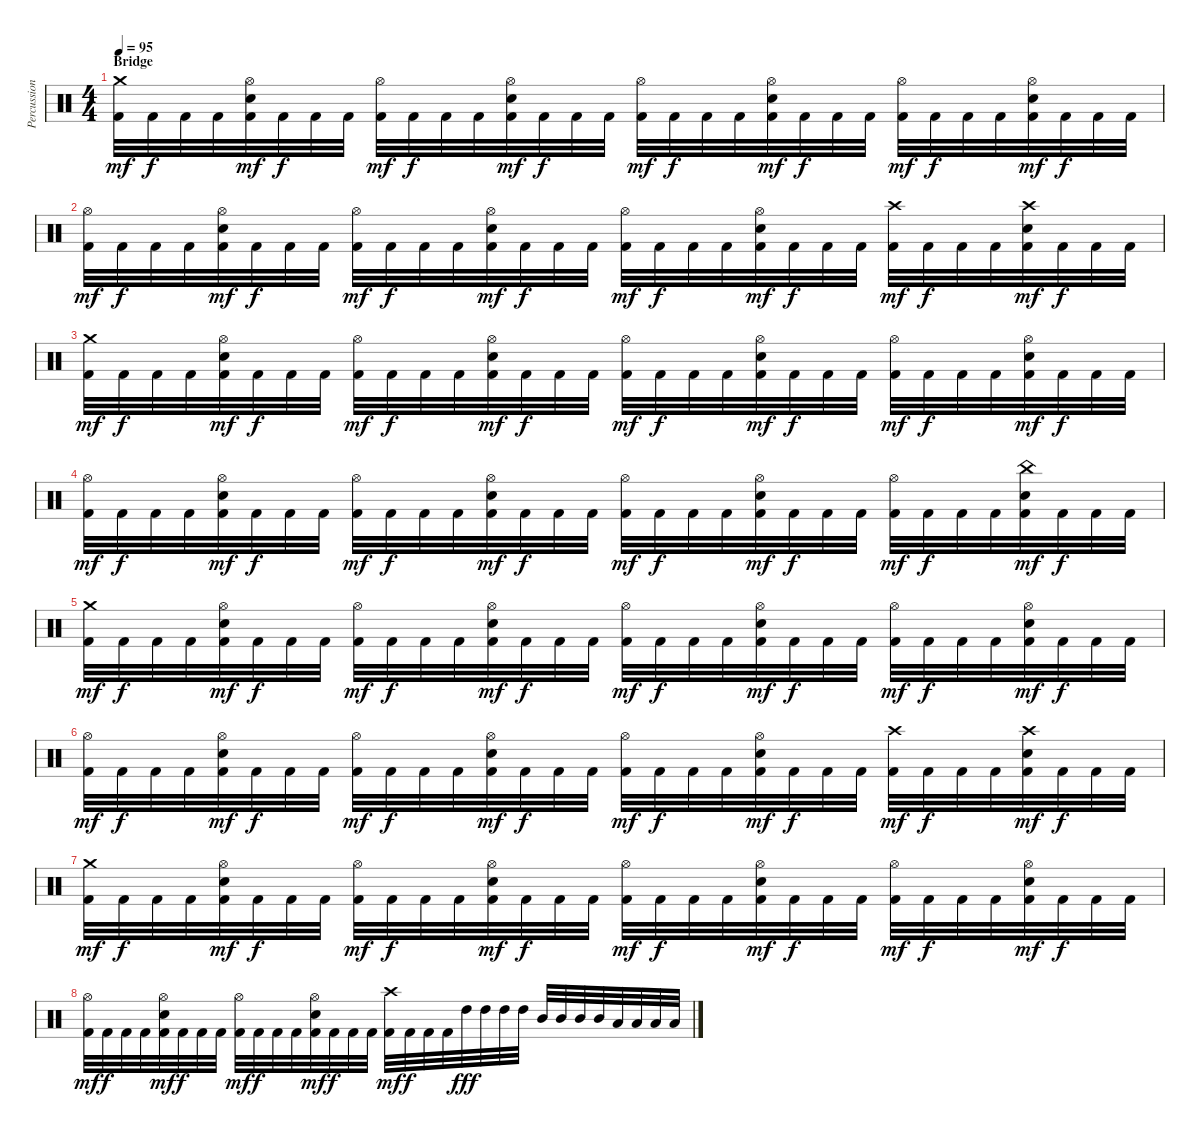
\track ("Percussion" "Percussion") {instrument percussion}
\staff {score}
\articulation defaults
\ts (4 4)
\section ("" "Bridge")
\tempo 95
\clef neutral
\ks c
("Crash medium (hit)" "Kick (hit) 2").32{dy mf} "Kick (hit) 2".32{dy f} "Kick (hit) 2".32 "Kick (hit) 2".32 ("Hi-Hat (open)" "Electric Snare (hit)" "Kick (hit) 2").32{dy mf} "Kick (hit) 2".32{dy f} "Kick (hit) 2".32 "Kick (hit) 2".32 ("Hi-Hat (open)" "Kick (hit) 2").32{dy mf} "Kick (hit) 2".32{dy f} "Kick (hit) 2".32 "Kick (hit) 2".32 ("Hi-Hat (open)" "Electric Snare (hit)" "Kick (hit) 2").32{dy mf} "Kick (hit) 2".32{dy f} "Kick (hit) 2".32 "Kick (hit) 2".32 ("Hi-Hat (open)" "Kick (hit) 2").32{dy mf} "Kick (hit) 2".32{dy f} "Kick (hit) 2".32 "Kick (hit) 2".32 ("Hi-Hat (open)" "Electric Snare (hit)" "Kick (hit) 2").32{dy mf} "Kick (hit) 2".32{dy f} "Kick (hit) 2".32 "Kick (hit) 2".32 ("Hi-Hat (open)" "Kick (hit) 2").32{dy mf} "Kick (hit) 2".32{dy f} "Kick (hit) 2".32 "Kick (hit) 2".32 ("Hi-Hat (open)" "Electric Snare (hit)" "Kick (hit) 2").32{dy mf} "Kick (hit) 2".32{dy f} "Kick (hit) 2".32 "Kick (hit) 2".32 |
("Hi-Hat (open)" "Kick (hit) 2").32{dy mf} "Kick (hit) 2".32{dy f} "Kick (hit) 2".32 "Kick (hit) 2".32 ("Hi-Hat (open)" "Electric Snare (hit)" "Kick (hit) 2").32{dy mf} "Kick (hit) 2".32{dy f} "Kick (hit) 2".32 "Kick (hit) 2".32 ("Hi-Hat (open)" "Kick (hit) 2").32{dy mf} "Kick (hit) 2".32{dy f} "Kick (hit) 2".32 "Kick (hit) 2".32 ("Hi-Hat (open)" "Electric Snare (hit)" "Kick (hit) 2").32{dy mf} "Kick (hit) 2".32{dy f} "Kick (hit) 2".32 "Kick (hit) 2".32 ("Hi-Hat (open)" "Kick (hit) 2").32{dy mf} "Kick (hit) 2".32{dy f} "Kick (hit) 2".32 "Kick (hit) 2".32 ("Hi-Hat (open)" "Electric Snare (hit)" "Kick (hit) 2").32{dy mf} "Kick (hit) 2".32{dy f} "Kick (hit) 2".32 "Kick (hit) 2".32 ("Crash high (hit)" "Kick (hit) 2").32{dy mf} "Kick (hit) 2".32{dy f} "Kick (hit) 2".32 "Kick (hit) 2".32 ("Crash high (hit)" "Electric Snare (hit)" "Kick (hit) 2").32{dy mf} "Kick (hit) 2".32{dy f} "Kick (hit) 2".32 "Kick (hit) 2".32 |
("Crash medium (hit)" "Kick (hit) 2").32{dy mf} "Kick (hit) 2".32{dy f} "Kick (hit) 2".32 "Kick (hit) 2".32 ("Hi-Hat (open)" "Electric Snare (hit)" "Kick (hit) 2").32{dy mf} "Kick (hit) 2".32{dy f} "Kick (hit) 2".32 "Kick (hit) 2".32 ("Hi-Hat (open)" "Kick (hit) 2").32{dy mf} "Kick (hit) 2".32{dy f} "Kick (hit) 2".32 "Kick (hit) 2".32 ("Hi-Hat (open)" "Electric Snare (hit)" "Kick (hit) 2").32{dy mf} "Kick (hit) 2".32{dy f} "Kick (hit) 2".32 "Kick (hit) 2".32 ("Hi-Hat (open)" "Kick (hit) 2").32{dy mf} "Kick (hit) 2".32{dy f} "Kick (hit) 2".32 "Kick (hit) 2".32 ("Hi-Hat (open)" "Electric Snare (hit)" "Kick (hit) 2").32{dy mf} "Kick (hit) 2".32{dy f} "Kick (hit) 2".32 "Kick (hit) 2".32 ("Hi-Hat (open)" "Kick (hit) 2").32{dy mf} "Kick (hit) 2".32{dy f} "Kick (hit) 2".32 "Kick (hit) 2".32 ("Hi-Hat (open)" "Electric Snare (hit)" "Kick (hit) 2").32{dy mf} "Kick (hit) 2".32{dy f} "Kick (hit) 2".32 "Kick (hit) 2".32 |
("Hi-Hat (open)" "Kick (hit) 2").32{dy mf} "Kick (hit) 2".32{dy f} "Kick (hit) 2".32 "Kick (hit) 2".32 ("Hi-Hat (open)" "Electric Snare (hit)" "Kick (hit) 2").32{dy mf} "Kick (hit) 2".32{dy f} "Kick (hit) 2".32 "Kick (hit) 2".32 ("Hi-Hat (open)" "Kick (hit) 2").32{dy mf} "Kick (hit) 2".32{dy f} "Kick (hit) 2".32 "Kick (hit) 2".32 ("Hi-Hat (open)" "Electric Snare (hit)" "Kick (hit) 2").32{dy mf} "Kick (hit) 2".32{dy f} "Kick (hit) 2".32 "Kick (hit) 2".32 ("Hi-Hat (open)" "Kick (hit) 2").32{dy mf} "Kick (hit) 2".32{dy f} "Kick (hit) 2".32 "Kick (hit) 2".32 ("Hi-Hat (open)" "Electric Snare (hit)" "Kick (hit) 2").32{dy mf} "Kick (hit) 2".32{dy f} "Kick (hit) 2".32 "Kick (hit) 2".32 ("Hi-Hat (open)" "Kick (hit) 2").32{dy mf} "Kick (hit) 2".32{dy f} "Kick (hit) 2".32 "Kick (hit) 2".32 ("China (hit)" "Electric Snare (hit)" "Kick (hit) 2").32{dy mf} "Kick (hit) 2".32{dy f} "Kick (hit) 2".32 "Kick (hit) 2".32 |
("Crash medium (hit)" "Kick (hit) 2").32{dy mf} "Kick (hit) 2".32{dy f} "Kick (hit) 2".32 "Kick (hit) 2".32 ("Hi-Hat (open)" "Electric Snare (hit)" "Kick (hit) 2").32{dy mf} "Kick (hit) 2".32{dy f} "Kick (hit) 2".32 "Kick (hit) 2".32 ("Hi-Hat (open)" "Kick (hit) 2").32{dy mf} "Kick (hit) 2".32{dy f} "Kick (hit) 2".32 "Kick (hit) 2".32 ("Hi-Hat (open)" "Electric Snare (hit)" "Kick (hit) 2").32{dy mf} "Kick (hit) 2".32{dy f} "Kick (hit) 2".32 "Kick (hit) 2".32 ("Hi-Hat (open)" "Kick (hit) 2").32{dy mf} "Kick (hit) 2".32{dy f} "Kick (hit) 2".32 "Kick (hit) 2".32 ("Hi-Hat (open)" "Electric Snare (hit)" "Kick (hit) 2").32{dy mf} "Kick (hit) 2".32{dy f} "Kick (hit) 2".32 "Kick (hit) 2".32 ("Hi-Hat (open)" "Kick (hit) 2").32{dy mf} "Kick (hit) 2".32{dy f} "Kick (hit) 2".32 "Kick (hit) 2".32 ("Hi-Hat (open)" "Electric Snare (hit)" "Kick (hit) 2").32{dy mf} "Kick (hit) 2".32{dy f} "Kick (hit) 2".32 "Kick (hit) 2".32 |
("Hi-Hat (open)" "Kick (hit) 2").32{dy mf} "Kick (hit) 2".32{dy f} "Kick (hit) 2".32 "Kick (hit) 2".32 ("Hi-Hat (open)" "Electric Snare (hit)" "Kick (hit) 2").32{dy mf} "Kick (hit) 2".32{dy f} "Kick (hit) 2".32 "Kick (hit) 2".32 ("Hi-Hat (open)" "Kick (hit) 2").32{dy mf} "Kick (hit) 2".32{dy f} "Kick (hit) 2".32 "Kick (hit) 2".32 ("Hi-Hat (open)" "Electric Snare (hit)" "Kick (hit) 2").32{dy mf} "Kick (hit) 2".32{dy f} "Kick (hit) 2".32 "Kick (hit) 2".32 ("Hi-Hat (open)" "Kick (hit) 2").32{dy mf} "Kick (hit) 2".32{dy f} "Kick (hit) 2".32 "Kick (hit) 2".32 ("Hi-Hat (open)" "Electric Snare (hit)" "Kick (hit) 2").32{dy mf} "Kick (hit) 2".32{dy f} "Kick (hit) 2".32 "Kick (hit) 2".32 ("Crash high (hit)" "Kick (hit) 2").32{dy mf} "Kick (hit) 2".32{dy f} "Kick (hit) 2".32 "Kick (hit) 2".32 ("Crash high (hit)" "Electric Snare (hit)" "Kick (hit) 2").32{dy mf} "Kick (hit) 2".32{dy f} "Kick (hit) 2".32 "Kick (hit) 2".32 |
("Crash medium (hit)" "Kick (hit) 2").32{dy mf} "Kick (hit) 2".32{dy f} "Kick (hit) 2".32 "Kick (hit) 2".32 ("Hi-Hat (open)" "Electric Snare (hit)" "Kick (hit) 2").32{dy mf} "Kick (hit) 2".32{dy f} "Kick (hit) 2".32 "Kick (hit) 2".32 ("Hi-Hat (open)" "Kick (hit) 2").32{dy mf} "Kick (hit) 2".32{dy f} "Kick (hit) 2".32 "Kick (hit) 2".32 ("Hi-Hat (open)" "Electric Snare (hit)" "Kick (hit) 2").32{dy mf} "Kick (hit) 2".32{dy f} "Kick (hit) 2".32 "Kick (hit) 2".32 ("Hi-Hat (open)" "Kick (hit) 2").32{dy mf} "Kick (hit) 2".32{dy f} "Kick (hit) 2".32 "Kick (hit) 2".32 ("Hi-Hat (open)" "Electric Snare (hit)" "Kick (hit) 2").32{dy mf} "Kick (hit) 2".32{dy f} "Kick (hit) 2".32 "Kick (hit) 2".32 ("Hi-Hat (open)" "Kick (hit) 2").32{dy mf} "Kick (hit) 2".32{dy f} "Kick (hit) 2".32 "Kick (hit) 2".32 ("Hi-Hat (open)" "Electric Snare (hit)" "Kick (hit) 2").32{dy mf} "Kick (hit) 2".32{dy f} "Kick (hit) 2".32 "Kick (hit) 2".32 |
("Hi-Hat (open)" "Kick (hit) 2").32{dy mf} "Kick (hit) 2".32{dy f} "Kick (hit) 2".32 "Kick (hit) 2".32 ("Hi-Hat (open)" "Electric Snare (hit)" "Kick (hit) 2").32{dy mf} "Kick (hit) 2".32{dy f} "Kick (hit) 2".32 "Kick (hit) 2".32 ("Hi-Hat (open)" "Kick (hit) 2").32{dy mf} "Kick (hit) 2".32{dy f} "Kick (hit) 2".32 "Kick (hit) 2".32 ("Hi-Hat (open)" "Electric Snare (hit)" "Kick (hit) 2").32{dy mf} "Kick (hit) 2".32{dy f} "Kick (hit) 2".32 "Kick (hit) 2".32 ("Crash high (hit)" "Kick (hit) 2").32{dy mf} "Kick (hit) 2".32{dy f} "Kick (hit) 2".32 "Kick (hit) 2".32 "High Tom (hit)".32{dy fff} "High Tom (hit)".32 "High Tom (hit)".32 "High Tom (hit)".32 "Mid Tom (hit)".32 "Mid Tom (hit)".32 "Mid Tom (hit)".32 "Mid Tom (hit)".32 "Low Tom (hit)".32 "Low Tom (hit)".32 "Low Tom (hit)".32 "Low Tom (hit)".32
